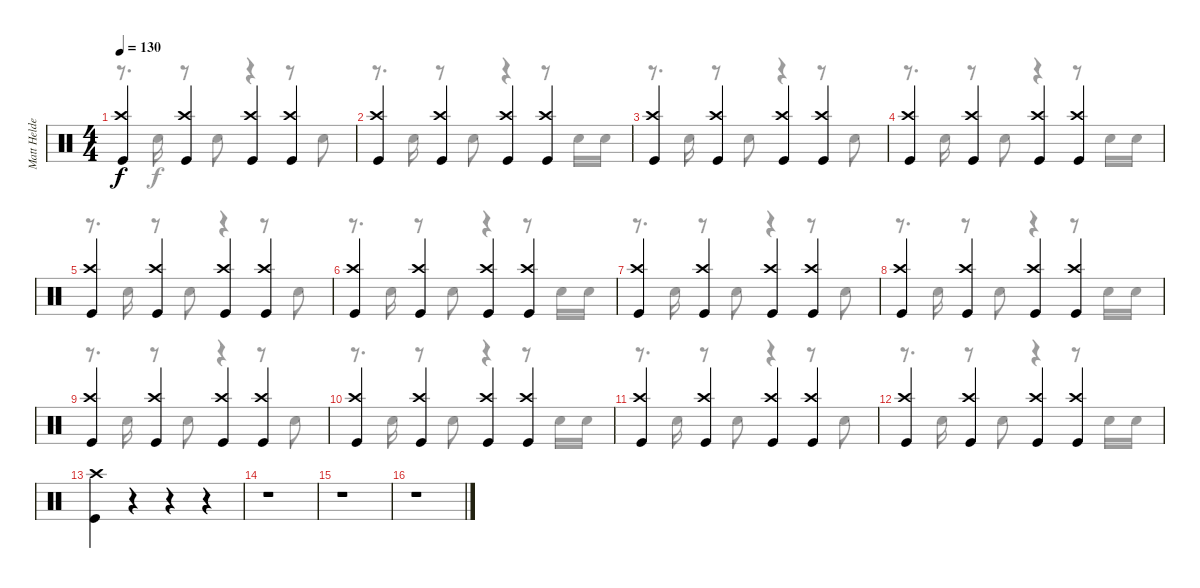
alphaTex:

\track ("Matt Helders (Drums)" "Matt Helde") {instrument percussion}
\staff {score}
\articulation defaults
\voice
\ts (4 4)
\tempo 130
\clef neutral
\ks c
("Crash high (hit)" "Kick (hit)").4{dy f} ("Crash high (hit)" "Kick (hit)").4 ("Crash high (hit)" "Kick (hit)").4 ("Crash high (hit)" "Kick (hit)").4 |
("Crash high (hit)" "Kick (hit)").4 ("Crash high (hit)" "Kick (hit)").4 ("Crash high (hit)" "Kick (hit)").4 ("Crash high (hit)" "Kick (hit)").4 |
("Crash high (hit)" "Kick (hit)").4 ("Crash high (hit)" "Kick (hit)").4 ("Crash high (hit)" "Kick (hit)").4 ("Crash high (hit)" "Kick (hit)").4 |
("Crash high (hit)" "Kick (hit)").4 ("Crash high (hit)" "Kick (hit)").4 ("Crash high (hit)" "Kick (hit)").4 ("Crash high (hit)" "Kick (hit)").4 |
("Crash high (hit)" "Kick (hit)").4 ("Crash high (hit)" "Kick (hit)").4 ("Crash high (hit)" "Kick (hit)").4 ("Crash high (hit)" "Kick (hit)").4 |
("Crash high (hit)" "Kick (hit)").4 ("Crash high (hit)" "Kick (hit)").4 ("Crash high (hit)" "Kick (hit)").4 ("Crash high (hit)" "Kick (hit)").4 |
("Crash high (hit)" "Kick (hit)").4 ("Crash high (hit)" "Kick (hit)").4 ("Crash high (hit)" "Kick (hit)").4 ("Crash high (hit)" "Kick (hit)").4 |
("Crash high (hit)" "Kick (hit)").4 ("Crash high (hit)" "Kick (hit)").4 ("Crash high (hit)" "Kick (hit)").4 ("Crash high (hit)" "Kick (hit)").4 |
("Crash high (hit)" "Kick (hit)").4 ("Crash high (hit)" "Kick (hit)").4 ("Crash high (hit)" "Kick (hit)").4 ("Crash high (hit)" "Kick (hit)").4 |
("Crash high (hit)" "Kick (hit)").4 ("Crash high (hit)" "Kick (hit)").4 ("Crash high (hit)" "Kick (hit)").4 ("Crash high (hit)" "Kick (hit)").4 |
("Crash high (hit)" "Kick (hit)").4 ("Crash high (hit)" "Kick (hit)").4 ("Crash high (hit)" "Kick (hit)").4 ("Crash high (hit)" "Kick (hit)").4 |
("Crash high (hit)" "Kick (hit)").4 ("Crash high (hit)" "Kick (hit)").4 ("Crash high (hit)" "Kick (hit)").4 ("Crash high (hit)" "Kick (hit)").4 |
("Crash high (hit)" "Kick (hit)").4 r.4 r.4 r.4 |
r.1 |
r.1 |
r.1
\voice
\clef neutral
\ottava regular
\simile none
\ks c
r.8{d dy f} "Snare (hit) 2".16 r.8 "Snare (hit) 2".8 r.4 r.8 "Snare (hit) 2".8 |
r.8{d} "Snare (hit) 2".16 r.8 "Snare (hit) 2".8 r.4 r.8 "Snare (hit) 2".16 "Snare (hit) 2".16 |
r.8{d} "Snare (hit) 2".16 r.8 "Snare (hit) 2".8 r.4 r.8 "Snare (hit) 2".8 |
r.8{d} "Snare (hit) 2".16 r.8 "Snare (hit) 2".8 r.4 r.8 "Snare (hit) 2".16 "Snare (hit) 2".16 |
r.8{d} "Snare (hit) 2".16 r.8 "Snare (hit) 2".8 r.4 r.8 "Snare (hit) 2".8 |
r.8{d} "Snare (hit) 2".16 r.8 "Snare (hit) 2".8 r.4 r.8 "Snare (hit) 2".16 "Snare (hit) 2".16 |
r.8{d} "Snare (hit) 2".16 r.8 "Snare (hit) 2".8 r.4 r.8 "Snare (hit) 2".8 |
r.8{d} "Snare (hit) 2".16 r.8 "Snare (hit) 2".8 r.4 r.8 "Snare (hit) 2".16 "Snare (hit) 2".16 |
r.8{d} "Snare (hit) 2".16 r.8 "Snare (hit) 2".8 r.4 r.8 "Snare (hit) 2".8 |
r.8{d} "Snare (hit) 2".16 r.8 "Snare (hit) 2".8 r.4 r.8 "Snare (hit) 2".16 "Snare (hit) 2".16 |
r.8{d} "Snare (hit) 2".16 r.8 "Snare (hit) 2".8 r.4 r.8 "Snare (hit) 2".8 |
r.8{d} "Snare (hit) 2".16 r.8 "Snare (hit) 2".8 r.4 r.8 "Snare (hit) 2".16 "Snare (hit) 2".16 |
|
|
|
